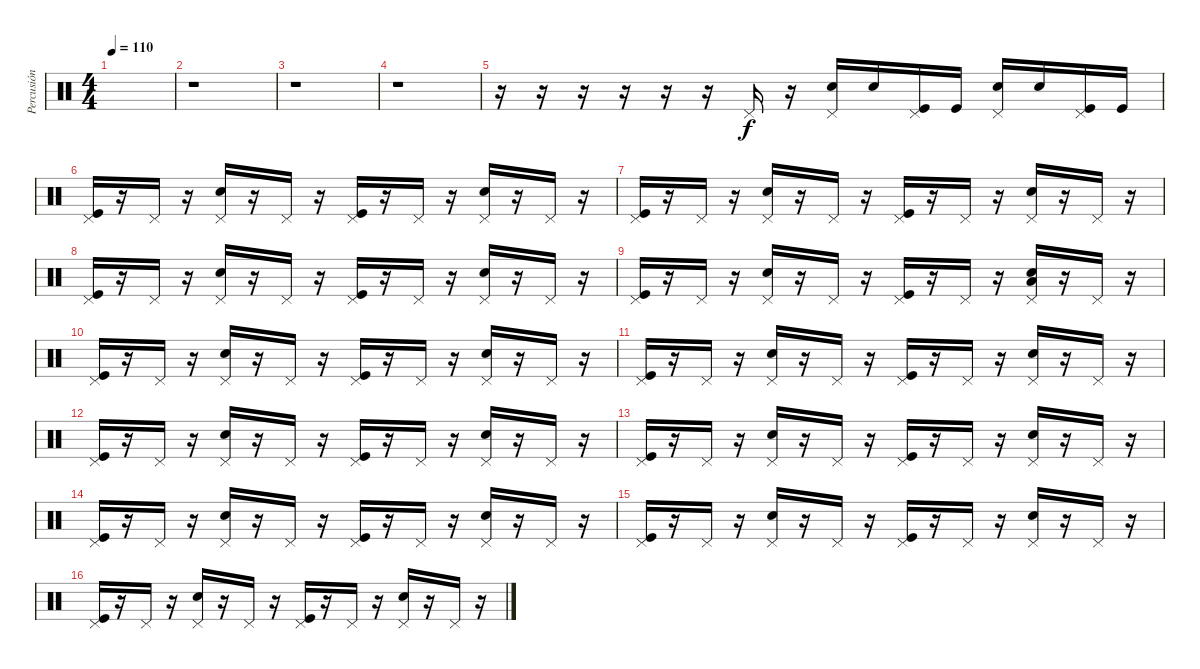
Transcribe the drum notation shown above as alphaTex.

\track ("Percusión" "Percusión") {instrument percussion}
\staff {score}
\articulation defaults
\ts (4 4)
\tempo 110
\clef neutral
\ks c
|
r.1 |
r.1 |
r.1 |
r.16 r.16 r.16 r.16 r.16 r.16 "Pedal Hi-Hat (hit)".16 r.16 ("Pedal Hi-Hat (hit)" "Electric Snare (hit)").16 "Electric Snare (hit)".16 ("Pedal Hi-Hat (hit)" "Kick (hit)").16 "Kick (hit)".16 ("Pedal Hi-Hat (hit)" "Electric Snare (hit)").16 "Electric Snare (hit)".16 ("Pedal Hi-Hat (hit)" "Kick (hit)").16 "Kick (hit)".16 |
("Pedal Hi-Hat (hit)" "Kick (hit)").16 r.16 "Pedal Hi-Hat (hit)".16 r.16 ("Pedal Hi-Hat (hit)" "Electric Snare (hit)").16 r.16 "Pedal Hi-Hat (hit)".16 r.16 ("Pedal Hi-Hat (hit)" "Kick (hit)").16 r.16 "Pedal Hi-Hat (hit)".16 r.16 ("Pedal Hi-Hat (hit)" "Electric Snare (hit)").16 r.16 "Pedal Hi-Hat (hit)".16 r.16 |
("Pedal Hi-Hat (hit)" "Kick (hit)").16 r.16 "Pedal Hi-Hat (hit)".16 r.16 ("Pedal Hi-Hat (hit)" "Electric Snare (hit)").16 r.16 "Pedal Hi-Hat (hit)".16 r.16 ("Pedal Hi-Hat (hit)" "Kick (hit)").16 r.16 "Pedal Hi-Hat (hit)".16 r.16 ("Pedal Hi-Hat (hit)" "Electric Snare (hit)").16 r.16 "Pedal Hi-Hat (hit)".16 r.16 |
("Pedal Hi-Hat (hit)" "Kick (hit)").16 r.16 "Pedal Hi-Hat (hit)".16 r.16 ("Pedal Hi-Hat (hit)" "Electric Snare (hit)").16 r.16 "Pedal Hi-Hat (hit)".16 r.16 ("Pedal Hi-Hat (hit)" "Kick (hit)").16 r.16 "Pedal Hi-Hat (hit)".16 r.16 ("Pedal Hi-Hat (hit)" "Electric Snare (hit)").16 r.16 "Pedal Hi-Hat (hit)".16 r.16 |
("Pedal Hi-Hat (hit)" "Kick (hit)").16 r.16 "Pedal Hi-Hat (hit)".16 r.16 ("Pedal Hi-Hat (hit)" "Electric Snare (hit)").16 r.16 "Pedal Hi-Hat (hit)".16 r.16 ("Pedal Hi-Hat (hit)" "Kick (hit)").16 r.16 "Pedal Hi-Hat (hit)".16 r.16 ("Pedal Hi-Hat (hit)" "Electric Snare (hit)" "Low Floor Tom (hit)").16 r.16 "Pedal Hi-Hat (hit)".16 r.16 |
("Pedal Hi-Hat (hit)" "Kick (hit)").16 r.16 "Pedal Hi-Hat (hit)".16 r.16 ("Pedal Hi-Hat (hit)" "Electric Snare (hit)").16 r.16 "Pedal Hi-Hat (hit)".16 r.16 ("Pedal Hi-Hat (hit)" "Kick (hit)").16 r.16 "Pedal Hi-Hat (hit)".16 r.16 ("Pedal Hi-Hat (hit)" "Electric Snare (hit)").16 r.16 "Pedal Hi-Hat (hit)".16 r.16 |
("Pedal Hi-Hat (hit)" "Kick (hit)").16 r.16 "Pedal Hi-Hat (hit)".16 r.16 ("Pedal Hi-Hat (hit)" "Electric Snare (hit)").16 r.16 "Pedal Hi-Hat (hit)".16 r.16 ("Pedal Hi-Hat (hit)" "Kick (hit)").16 r.16 "Pedal Hi-Hat (hit)".16 r.16 ("Pedal Hi-Hat (hit)" "Electric Snare (hit)").16 r.16 "Pedal Hi-Hat (hit)".16 r.16 |
("Pedal Hi-Hat (hit)" "Kick (hit)").16 r.16 "Pedal Hi-Hat (hit)".16 r.16 ("Pedal Hi-Hat (hit)" "Electric Snare (hit)").16 r.16 "Pedal Hi-Hat (hit)".16 r.16 ("Pedal Hi-Hat (hit)" "Kick (hit)").16 r.16 "Pedal Hi-Hat (hit)".16 r.16 ("Pedal Hi-Hat (hit)" "Electric Snare (hit)").16 r.16 "Pedal Hi-Hat (hit)".16 r.16 |
("Pedal Hi-Hat (hit)" "Kick (hit)").16 r.16 "Pedal Hi-Hat (hit)".16 r.16 ("Pedal Hi-Hat (hit)" "Electric Snare (hit)").16 r.16 "Pedal Hi-Hat (hit)".16 r.16 ("Pedal Hi-Hat (hit)" "Kick (hit)").16 r.16 "Pedal Hi-Hat (hit)".16 r.16 ("Pedal Hi-Hat (hit)" "Electric Snare (hit)").16 r.16 "Pedal Hi-Hat (hit)".16 r.16 |
("Pedal Hi-Hat (hit)" "Kick (hit)").16 r.16 "Pedal Hi-Hat (hit)".16 r.16 ("Pedal Hi-Hat (hit)" "Electric Snare (hit)").16 r.16 "Pedal Hi-Hat (hit)".16 r.16 ("Pedal Hi-Hat (hit)" "Kick (hit)").16 r.16 "Pedal Hi-Hat (hit)".16 r.16 ("Pedal Hi-Hat (hit)" "Electric Snare (hit)").16 r.16 "Pedal Hi-Hat (hit)".16 r.16 |
("Pedal Hi-Hat (hit)" "Kick (hit)").16 r.16 "Pedal Hi-Hat (hit)".16 r.16 ("Pedal Hi-Hat (hit)" "Electric Snare (hit)").16 r.16 "Pedal Hi-Hat (hit)".16 r.16 ("Pedal Hi-Hat (hit)" "Kick (hit)").16 r.16 "Pedal Hi-Hat (hit)".16 r.16 ("Pedal Hi-Hat (hit)" "Electric Snare (hit)").16 r.16 "Pedal Hi-Hat (hit)".16 r.16 |
("Pedal Hi-Hat (hit)" "Kick (hit)").16 r.16 "Pedal Hi-Hat (hit)".16 r.16 ("Pedal Hi-Hat (hit)" "Electric Snare (hit)").16 r.16 "Pedal Hi-Hat (hit)".16 r.16 ("Pedal Hi-Hat (hit)" "Kick (hit)").16 r.16 "Pedal Hi-Hat (hit)".16 r.16 ("Pedal Hi-Hat (hit)" "Electric Snare (hit)").16 r.16 "Pedal Hi-Hat (hit)".16 r.16
